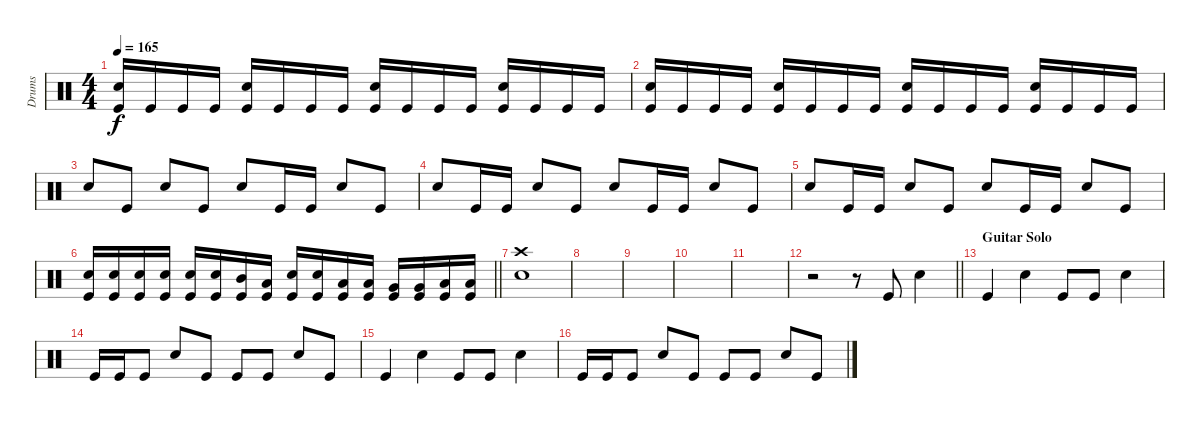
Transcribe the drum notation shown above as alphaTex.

\track ("Drums" "Drums") {instrument percussion}
\staff {score}
\articulation defaults
\ts (4 4)
\tempo 165
\clef neutral
\ks c
("Kick (hit)" "Snare (hit) 2").16{dy f} "Kick (hit)".16 "Kick (hit)".16 "Kick (hit)".16 ("Kick (hit)" "Snare (hit) 2").16 "Kick (hit)".16 "Kick (hit)".16 "Kick (hit)".16 ("Kick (hit)" "Snare (hit) 2").16 "Kick (hit)".16 "Kick (hit)".16 "Kick (hit)".16 ("Kick (hit)" "Snare (hit) 2").16 "Kick (hit)".16 "Kick (hit)".16 "Kick (hit)".16 |
("Kick (hit)" "Snare (hit) 2").16 "Kick (hit)".16 "Kick (hit)".16 "Kick (hit)".16 ("Kick (hit)" "Snare (hit) 2").16 "Kick (hit)".16 "Kick (hit)".16 "Kick (hit)".16 ("Kick (hit)" "Snare (hit) 2").16 "Kick (hit)".16 "Kick (hit)".16 "Kick (hit)".16 ("Kick (hit)" "Snare (hit) 2").16 "Kick (hit)".16 "Kick (hit)".16 "Kick (hit)".16 |
"Snare (hit) 2".8 "Kick (hit)".8 "Snare (hit) 2".8 "Kick (hit)".8 "Snare (hit) 2".8 "Kick (hit)".16 "Kick (hit)".16 "Snare (hit) 2".8 "Kick (hit)".8 |
"Snare (hit) 2".8 "Kick (hit)".16 "Kick (hit)".16 "Snare (hit) 2".8 "Kick (hit)".8 "Snare (hit) 2".8 "Kick (hit)".16 "Kick (hit)".16 "Snare (hit) 2".8 "Kick (hit)".8 |
"Snare (hit) 2".8 "Kick (hit)".16 "Kick (hit)".16 "Snare (hit) 2".8 "Kick (hit)".8 "Snare (hit) 2".8 "Kick (hit)".16 "Kick (hit)".16 "Snare (hit) 2".8 "Kick (hit)".8 |
\barLineRight lightlight
("Kick (hit)" "Snare (hit) 2").16 ("Kick (hit)" "Snare (hit) 2").16 ("Kick (hit)" "Snare (hit) 2").16 ("Kick (hit)" "Snare (hit) 2").16 ("Kick (hit)" "Snare (hit) 2").16 ("Kick (hit)" "Snare (hit) 2").16 ("Kick (hit)" "Mid Tom (hit)").16 ("Kick (hit)" "Low Tom (hit)").16 ("Kick (hit)" "Snare (hit) 2").16 ("Kick (hit)" "Snare (hit) 2").16 ("Kick (hit)" "Low Tom (hit)").16 ("Kick (hit)" "Low Tom (hit)").16 ("Kick (hit)" "Very Low Tom (hit)").16 ("Kick (hit)" "Very Low Tom (hit)").16 ("Kick (hit)" "Low Floor Tom (hit)").16 ("Kick (hit)" "Low Floor Tom (hit)").16 |
("Snare (hit) 2" "Crash high (hit)").1 |
|
|
|
|
\barLineRight lightlight
r.2 r.8 "Kick (hit)".8 "Snare (hit) 2".4 |
\section ("" "Guitar Solo")
"Kick (hit)".4 "Snare (hit) 2".4 "Kick (hit)".8 "Kick (hit)".8 "Snare (hit) 2".4 |
"Kick (hit)".16 "Kick (hit)".16 "Kick (hit)".8 "Snare (hit) 2".8 "Kick (hit)".8 "Kick (hit)".8 "Kick (hit)".8 "Snare (hit) 2".8 "Kick (hit)".8 |
"Kick (hit)".4 "Snare (hit) 2".4 "Kick (hit)".8 "Kick (hit)".8 "Snare (hit) 2".4 |
"Kick (hit)".16 "Kick (hit)".16 "Kick (hit)".8 "Snare (hit) 2".8 "Kick (hit)".8 "Kick (hit)".8 "Kick (hit)".8 "Snare (hit) 2".8 "Kick (hit)".8
